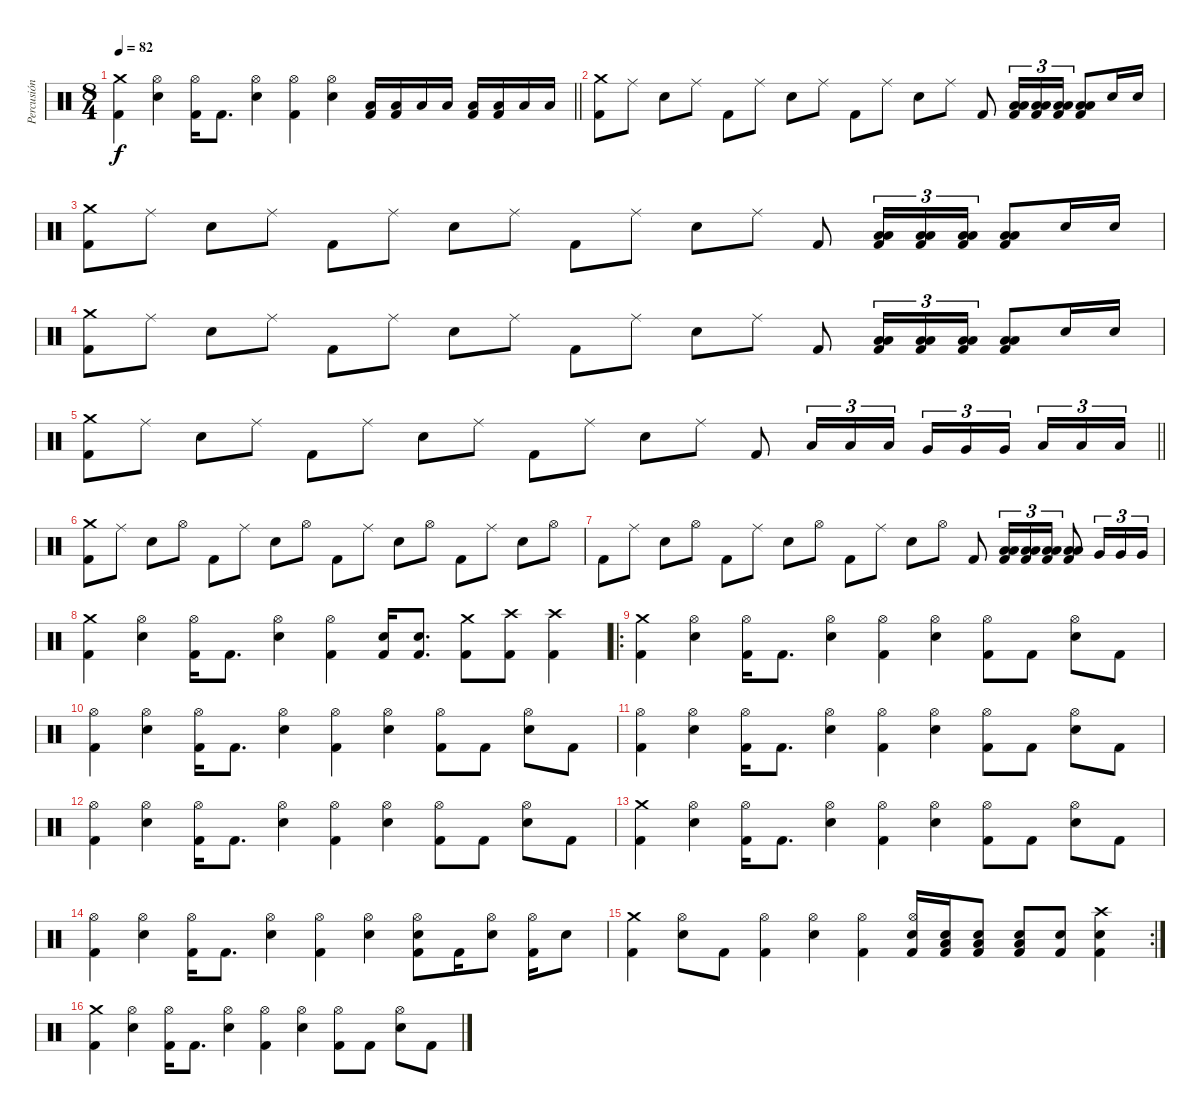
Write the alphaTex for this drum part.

\track ("Percusión" "Percusión") {instrument percussion}
\staff {score}
\articulation defaults
\ts (8 4)
\tempo 82
\clef neutral
\barLineRight lightlight
\ks c
("Crash medium (hit)" "Kick (hit) 2").4{dy f} ("Hi-Hat (open)" "Electric Snare (hit)").4 ("Hi-Hat (open)" "Kick (hit) 2").16 "Kick (hit) 2".8{d} ("Hi-Hat (open)" "Electric Snare (hit)").4 ("Hi-Hat (open)" "Kick (hit) 2").4 ("Hi-Hat (open)" "Electric Snare (hit)").4 ("Low Tom (hit)" "Kick (hit) 2").16 ("Low Tom (hit)" "Kick (hit) 2").16 "Low Floor Tom (hit)".16 "Low Floor Tom (hit)".16 ("Low Tom (hit)" "Kick (hit) 2").16 ("Low Tom (hit)" "Kick (hit) 2").16 "Low Floor Tom (hit)".16 "Low Floor Tom (hit)".16 |
("Crash medium (hit)" "Kick (hit) 2").8 "Ride (middle)".8 "Electric Snare (hit)".8 "Ride (middle)".8 "Kick (hit) 2".8 "Ride (middle)".8 "Electric Snare (hit)".8 "Ride (middle)".8 "Kick (hit) 2".8 "Ride (middle)".8 "Electric Snare (hit)".8 "Ride (middle)".8 "Kick (hit) 2".8 ("Low Tom (hit)" "Low Floor Tom (hit)" "Kick (hit) 2").16{tu (3 2)} ("Low Tom (hit)" "Low Floor Tom (hit)" "Kick (hit) 2").16{tu (3 2)} ("Low Tom (hit)" "Low Floor Tom (hit)" "Kick (hit) 2").16{tu (3 2)} ("Low Tom (hit)" "Low Floor Tom (hit)" "Kick (hit) 2").8 "Electric Snare (hit)".16 "Electric Snare (hit)".16 |
("Crash medium (hit)" "Kick (hit) 2").8 "Ride (middle)".8 "Electric Snare (hit)".8 "Ride (middle)".8 "Kick (hit) 2".8 "Ride (middle)".8 "Electric Snare (hit)".8 "Ride (middle)".8 "Kick (hit) 2".8 "Ride (middle)".8 "Electric Snare (hit)".8 "Ride (middle)".8 "Kick (hit) 2".8 ("Low Tom (hit)" "Low Floor Tom (hit)" "Kick (hit) 2").16{tu (3 2)} ("Low Tom (hit)" "Low Floor Tom (hit)" "Kick (hit) 2").16{tu (3 2)} ("Low Tom (hit)" "Low Floor Tom (hit)" "Kick (hit) 2").16{tu (3 2)} ("Low Tom (hit)" "Low Floor Tom (hit)" "Kick (hit) 2").8 "Electric Snare (hit)".16 "Electric Snare (hit)".16 |
("Crash medium (hit)" "Kick (hit) 2").8 "Ride (middle)".8 "Electric Snare (hit)".8 "Ride (middle)".8 "Kick (hit) 2".8 "Ride (middle)".8 "Electric Snare (hit)".8 "Ride (middle)".8 "Kick (hit) 2".8 "Ride (middle)".8 "Electric Snare (hit)".8 "Ride (middle)".8 "Kick (hit) 2".8 ("Low Tom (hit)" "Low Floor Tom (hit)" "Kick (hit) 2").16{tu (3 2)} ("Low Tom (hit)" "Low Floor Tom (hit)" "Kick (hit) 2").16{tu (3 2)} ("Low Tom (hit)" "Low Floor Tom (hit)" "Kick (hit) 2").16{tu (3 2)} ("Low Tom (hit)" "Low Floor Tom (hit)" "Kick (hit) 2").8 "Electric Snare (hit)".16 "Electric Snare (hit)".16 |
\barLineRight lightlight
("Crash medium (hit)" "Kick (hit) 2").8 "Ride (middle)".8 "Electric Snare (hit)".8 "Ride (middle)".8 "Kick (hit) 2".8 "Ride (middle)".8 "Electric Snare (hit)".8 "Ride (middle)".8 "Kick (hit) 2".8 "Ride (middle)".8 "Electric Snare (hit)".8 "Ride (middle)".8 "Kick (hit) 2".8 "Low Tom (hit)".16{tu (3 2)} "Low Tom (hit)".16{tu (3 2)} "Low Tom (hit)".16{tu (3 2)} "Very Low Tom (hit)".16{tu (3 2)} "Very Low Tom (hit)".16{tu (3 2)} "Very Low Tom (hit)".16{tu (3 2) beam splitsecondary} "Low Floor Tom (hit)".16{tu (3 2)} "Low Floor Tom (hit)".16{tu (3 2)} "Low Floor Tom (hit)".16{tu (3 2)} |
("Crash medium (hit)" "Kick (hit) 2").8 "Ride (middle)".8 "Electric Snare (hit)".8 "Hi-Hat (open)".8 "Kick (hit) 2".8 "Ride (middle)".8 "Electric Snare (hit)".8 "Hi-Hat (open)".8 "Kick (hit) 2".8 "Ride (middle)".8 "Electric Snare (hit)".8 "Hi-Hat (open)".8 "Kick (hit) 2".8 "Ride (middle)".8 "Electric Snare (hit)".8 "Hi-Hat (open)".8 |
"Kick (hit) 2".8 "Ride (middle)".8 "Electric Snare (hit)".8 "Hi-Hat (open)".8 "Kick (hit) 2".8 "Ride (middle)".8 "Electric Snare (hit)".8 "Hi-Hat (open)".8 "Kick (hit) 2".8 "Ride (middle)".8 "Electric Snare (hit)".8 "Hi-Hat (open)".8 "Kick (hit) 2".8 ("Low Tom (hit)" "Low Floor Tom (hit)" "Kick (hit) 2").16{tu (3 2)} ("Low Tom (hit)" "Low Floor Tom (hit)" "Kick (hit) 2").16{tu (3 2)} ("Low Tom (hit)" "Low Floor Tom (hit)" "Kick (hit) 2").16{tu (3 2)} ("Low Tom (hit)" "Low Floor Tom (hit)" "Kick (hit) 2").8 "Very Low Tom (hit)".16{tu (3 2)} "Very Low Tom (hit)".16{tu (3 2)} "Very Low Tom (hit)".16{tu (3 2)} |
("Crash medium (hit)" "Kick (hit) 2").4 ("Hi-Hat (open)" "Electric Snare (hit)").4 ("Hi-Hat (open)" "Kick (hit) 2").16 "Kick (hit) 2".8{d} ("Hi-Hat (open)" "Electric Snare (hit)").4 ("Hi-Hat (open)" "Kick (hit) 2").4 ("Electric Snare (hit)" "Kick (hit) 2").16 ("Electric Snare (hit)" "Kick (hit) 2").8{d} ("Crash medium (hit)" "Kick (hit) 2").8 ("Crash high (hit)" "Kick (hit) 2").8 ("Crash high (hit)" "Kick (hit) 2").4 |
\ro
("Crash medium (hit)" "Kick (hit) 2").4 ("Hi-Hat (open)" "Electric Snare (hit)").4 ("Hi-Hat (open)" "Kick (hit) 2").16 "Kick (hit) 2".8{d} ("Hi-Hat (open)" "Electric Snare (hit)").4 ("Hi-Hat (open)" "Kick (hit) 2").4 ("Hi-Hat (open)" "Electric Snare (hit)").4 ("Hi-Hat (open)" "Kick (hit) 2").8 "Kick (hit) 2".8 ("Hi-Hat (open)" "Electric Snare (hit)").8 "Kick (hit) 2".8 |
("Hi-Hat (open)" "Kick (hit) 2").4 ("Hi-Hat (open)" "Electric Snare (hit)").4 ("Hi-Hat (open)" "Kick (hit) 2").16 "Kick (hit) 2".8{d} ("Hi-Hat (open)" "Electric Snare (hit)").4 ("Hi-Hat (open)" "Kick (hit) 2").4 ("Hi-Hat (open)" "Electric Snare (hit)").4 ("Hi-Hat (open)" "Kick (hit) 2").8 "Kick (hit) 2".8 ("Hi-Hat (open)" "Electric Snare (hit)").8 "Kick (hit) 2".8 |
("Hi-Hat (open)" "Kick (hit) 2").4 ("Hi-Hat (open)" "Electric Snare (hit)").4 ("Hi-Hat (open)" "Kick (hit) 2").16 "Kick (hit) 2".8{d} ("Hi-Hat (open)" "Electric Snare (hit)").4 ("Hi-Hat (open)" "Kick (hit) 2").4 ("Hi-Hat (open)" "Electric Snare (hit)").4 ("Hi-Hat (open)" "Kick (hit) 2").8 "Kick (hit) 2".8 ("Hi-Hat (open)" "Electric Snare (hit)").8 "Kick (hit) 2".8 |
("Hi-Hat (open)" "Kick (hit) 2").4 ("Hi-Hat (open)" "Electric Snare (hit)").4 ("Hi-Hat (open)" "Kick (hit) 2").16 "Kick (hit) 2".8{d} ("Hi-Hat (open)" "Electric Snare (hit)").4 ("Hi-Hat (open)" "Kick (hit) 2").4 ("Hi-Hat (open)" "Electric Snare (hit)").4 ("Hi-Hat (open)" "Kick (hit) 2").8 "Kick (hit) 2".8 ("Hi-Hat (open)" "Electric Snare (hit)").8 "Kick (hit) 2".8 |
("Crash medium (hit)" "Kick (hit) 2").4 ("Hi-Hat (open)" "Electric Snare (hit)").4 ("Hi-Hat (open)" "Kick (hit) 2").16 "Kick (hit) 2".8{d} ("Hi-Hat (open)" "Electric Snare (hit)").4 ("Hi-Hat (open)" "Kick (hit) 2").4 ("Hi-Hat (open)" "Electric Snare (hit)").4 ("Hi-Hat (open)" "Kick (hit) 2").8 "Kick (hit) 2".8 ("Hi-Hat (open)" "Electric Snare (hit)").8 "Kick (hit) 2".8 |
("Hi-Hat (open)" "Kick (hit) 2").4 ("Hi-Hat (open)" "Electric Snare (hit)").4 ("Hi-Hat (open)" "Kick (hit) 2").16 "Kick (hit) 2".8{d} ("Hi-Hat (open)" "Electric Snare (hit)").4 ("Hi-Hat (open)" "Kick (hit) 2").4 ("Hi-Hat (open)" "Electric Snare (hit)").4 ("Hi-Hat (open)" "Electric Snare (hit)" "Kick (hit) 2").8 "Kick (hit) 2".16 ("Hi-Hat (open)" "Electric Snare (hit)").8 ("Hi-Hat (open)" "Kick (hit) 2").16 "Electric Snare (hit)".8 |
\rc 2
("Crash medium (hit)" "Kick (hit) 2").4 ("Hi-Hat (open)" "Electric Snare (hit)").8 "Kick (hit) 2".8 ("Hi-Hat (open)" "Kick (hit) 2").4 ("Hi-Hat (open)" "Electric Snare (hit)").4 ("Hi-Hat (open)" "Kick (hit) 2").4 ("Hi-Hat (open)" "Electric Snare (hit)" "Kick (hit) 2").16 ("Low Tom (hit)" "Electric Snare (hit)" "Kick (hit) 2").16 ("Low Tom (hit)" "Electric Snare (hit)" "Kick (hit) 2").8 ("Low Floor Tom (hit)" "Electric Snare (hit)" "Kick (hit) 2").8 ("Electric Snare (hit)" "Kick (hit) 2").8 ("Crash high (hit)" "Electric Snare (hit)" "Kick (hit) 2").4 |
("Crash medium (hit)" "Kick (hit) 2").4 ("Hi-Hat (open)" "Electric Snare (hit)").4 ("Hi-Hat (open)" "Kick (hit) 2").16 "Kick (hit) 2".8{d} ("Hi-Hat (open)" "Electric Snare (hit)").4 ("Hi-Hat (open)" "Kick (hit) 2").4 ("Hi-Hat (open)" "Electric Snare (hit)").4 ("Hi-Hat (open)" "Kick (hit) 2").8 "Kick (hit) 2".8 ("Hi-Hat (open)" "Electric Snare (hit)").8 "Kick (hit) 2".8
